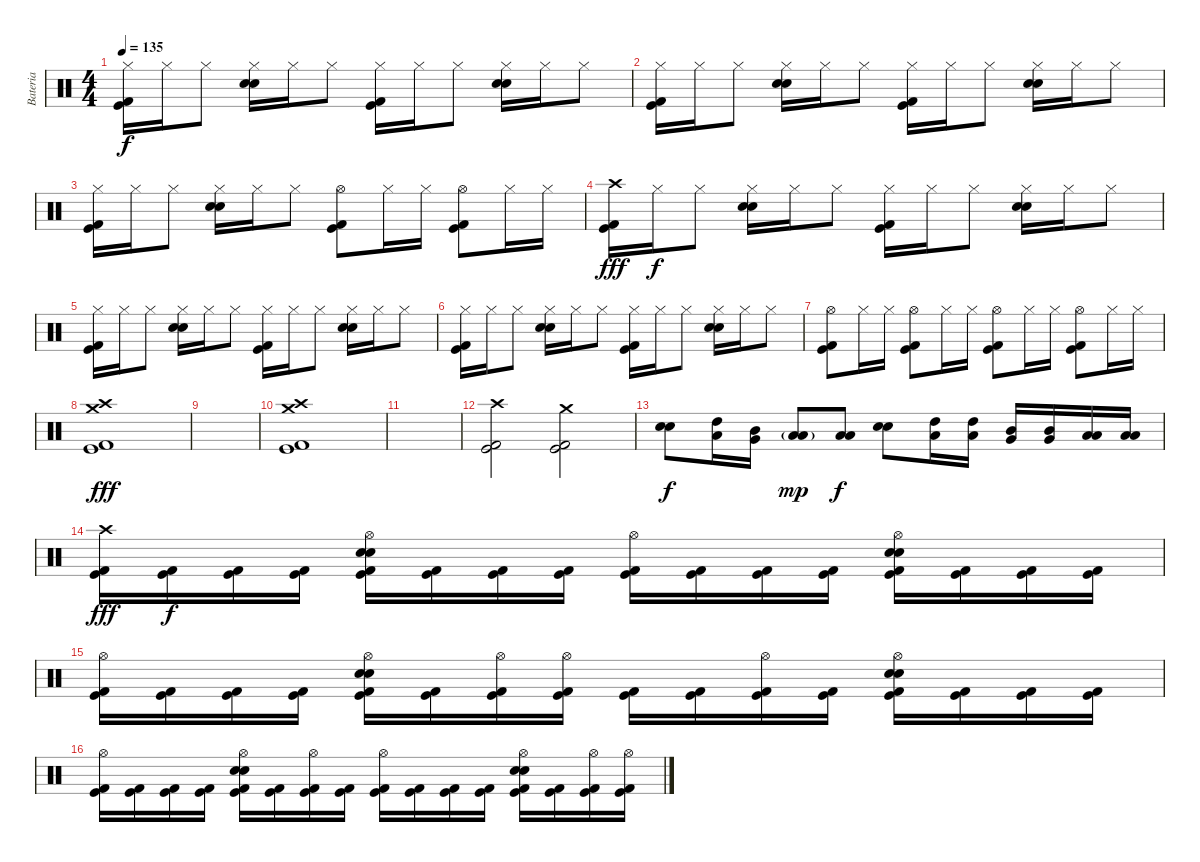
\track ("Bateria" "Bateria") {instrument percussion}
\staff {score}
\articulation defaults
\ts (4 4)
\tempo 135
\clef neutral
\ks c
("Hi-Hat (closed)" "Kick (hit) 2" "Kick (hit)").16{dy f} "Hi-Hat (closed)".16 "Hi-Hat (closed)".8 ("Hi-Hat (closed)" "Electric Snare (hit)" "Snare (hit) 2").16 "Hi-Hat (closed)".16 "Hi-Hat (closed)".8 ("Hi-Hat (closed)" "Kick (hit) 2" "Kick (hit)").16 "Hi-Hat (closed)".16 "Hi-Hat (closed)".8 ("Hi-Hat (closed)" "Electric Snare (hit)" "Snare (hit) 2").16 "Hi-Hat (closed)".16 "Hi-Hat (closed)".8 |
("Hi-Hat (closed)" "Kick (hit) 2" "Kick (hit)").16 "Hi-Hat (closed)".16 "Hi-Hat (closed)".8 ("Hi-Hat (closed)" "Electric Snare (hit)" "Snare (hit) 2").16 "Hi-Hat (closed)".16 "Hi-Hat (closed)".8 ("Hi-Hat (closed)" "Kick (hit) 2" "Kick (hit)").16 "Hi-Hat (closed)".16 "Hi-Hat (closed)".8 ("Hi-Hat (closed)" "Electric Snare (hit)" "Snare (hit) 2").16 "Hi-Hat (closed)".16 "Hi-Hat (closed)".8 |
("Hi-Hat (closed)" "Kick (hit) 2" "Kick (hit)").16 "Hi-Hat (closed)".16 "Hi-Hat (closed)".8 ("Hi-Hat (closed)" "Electric Snare (hit)" "Snare (hit) 2").16 "Hi-Hat (closed)".16 "Hi-Hat (closed)".8 ("Hi-Hat (open)" "Kick (hit) 2" "Kick (hit)").8 "Hi-Hat (closed)".16 "Hi-Hat (closed)".16 ("Hi-Hat (open)" "Kick (hit) 2" "Kick (hit)").8 "Hi-Hat (closed)".16 "Hi-Hat (closed)".16 |
("Crash high (hit)" "Kick (hit) 2" "Kick (hit)").16{dy fff} "Hi-Hat (closed)".16{dy f} "Hi-Hat (closed)".8 ("Hi-Hat (closed)" "Electric Snare (hit)" "Snare (hit) 2").16 "Hi-Hat (closed)".16 "Hi-Hat (closed)".8 ("Hi-Hat (closed)" "Kick (hit) 2" "Kick (hit)").16 "Hi-Hat (closed)".16 "Hi-Hat (closed)".8 ("Hi-Hat (closed)" "Electric Snare (hit)" "Snare (hit) 2").16 "Hi-Hat (closed)".16 "Hi-Hat (closed)".8 |
("Hi-Hat (closed)" "Kick (hit) 2" "Kick (hit)").16 "Hi-Hat (closed)".16 "Hi-Hat (closed)".8 ("Hi-Hat (closed)" "Electric Snare (hit)" "Snare (hit) 2").16 "Hi-Hat (closed)".16 "Hi-Hat (closed)".8 ("Hi-Hat (closed)" "Kick (hit) 2" "Kick (hit)").16 "Hi-Hat (closed)".16 "Hi-Hat (closed)".8 ("Hi-Hat (closed)" "Electric Snare (hit)" "Snare (hit) 2").16 "Hi-Hat (closed)".16 "Hi-Hat (closed)".8 |
("Hi-Hat (closed)" "Kick (hit) 2" "Kick (hit)").16 "Hi-Hat (closed)".16 "Hi-Hat (closed)".8 ("Hi-Hat (closed)" "Electric Snare (hit)" "Snare (hit) 2").16 "Hi-Hat (closed)".16 "Hi-Hat (closed)".8 ("Hi-Hat (closed)" "Kick (hit) 2" "Kick (hit)").16 "Hi-Hat (closed)".16 "Hi-Hat (closed)".8 ("Hi-Hat (closed)" "Electric Snare (hit)" "Snare (hit) 2").16 "Hi-Hat (closed)".16 "Hi-Hat (closed)".8 |
("Hi-Hat (open)" "Kick (hit) 2" "Kick (hit)").8 "Hi-Hat (closed)".16 "Hi-Hat (closed)".16 ("Hi-Hat (open)" "Kick (hit) 2" "Kick (hit)").8 "Hi-Hat (closed)".16 "Hi-Hat (closed)".16 ("Hi-Hat (open)" "Kick (hit) 2" "Kick (hit)").8 "Hi-Hat (closed)".16 "Hi-Hat (closed)".16 ("Hi-Hat (open)" "Kick (hit) 2" "Kick (hit)").8 "Hi-Hat (closed)".16 "Hi-Hat (closed)".16 |
("Crash high (hit)" "Crash medium (hit)" "Kick (hit) 2" "Kick (hit)").1{dy fff} |
|
("Crash high (hit)" "Crash medium (hit)" "Kick (hit) 2" "Kick (hit)").1 |
|
("Crash high (hit)" "Kick (hit) 2" "Kick (hit)").2 ("Crash medium (hit)" "Kick (hit) 2" "Kick (hit)").2 |
("Electric Snare (hit)" "Snare (hit) 2").8{dy f} ("High Tom (hit)" "Low Tom (hit)").16 ("Mid Tom (hit)" "Very Low Tom (hit)").16 ("Low Tom (hit)"{g} "Low Floor Tom (hit)"{g}).8{dy mp} ("Low Tom (hit)" "Low Floor Tom (hit)").8{dy f} ("Electric Snare (hit)" "Snare (hit) 2").8 ("High Tom (hit)" "Low Tom (hit)").16 ("High Tom (hit)" "Low Tom (hit)").16 ("Mid Tom (hit)" "Very Low Tom (hit)").16 ("Mid Tom (hit)" "Very Low Tom (hit)").16 ("Low Tom (hit)" "Low Floor Tom (hit)").16 ("Low Tom (hit)" "Low Floor Tom (hit)").16 |
("Crash high (hit)" "Kick (hit) 2" "Kick (hit)").16{dy fff} ("Kick (hit) 2" "Kick (hit)").16{dy f} ("Kick (hit) 2" "Kick (hit)").16 ("Kick (hit) 2" "Kick (hit)").16 ("Hi-Hat (open)" "Electric Snare (hit)" "Snare (hit) 2" "Kick (hit) 2" "Kick (hit)").16 ("Kick (hit) 2" "Kick (hit)").16 ("Kick (hit) 2" "Kick (hit)").16 ("Kick (hit) 2" "Kick (hit)").16 ("Hi-Hat (open)" "Kick (hit) 2" "Kick (hit)").16 ("Kick (hit) 2" "Kick (hit)").16 ("Kick (hit) 2" "Kick (hit)").16 ("Kick (hit) 2" "Kick (hit)").16 ("Hi-Hat (open)" "Electric Snare (hit)" "Snare (hit) 2" "Kick (hit) 2" "Kick (hit)").16 ("Kick (hit) 2" "Kick (hit)").16 ("Kick (hit) 2" "Kick (hit)").16 ("Kick (hit) 2" "Kick (hit)").16 |
("Hi-Hat (open)" "Kick (hit) 2" "Kick (hit)").16 ("Kick (hit) 2" "Kick (hit)").16 ("Kick (hit) 2" "Kick (hit)").16 ("Kick (hit) 2" "Kick (hit)").16 ("Hi-Hat (open)" "Electric Snare (hit)" "Snare (hit) 2" "Kick (hit) 2" "Kick (hit)").16 ("Kick (hit) 2" "Kick (hit)").16 ("Hi-Hat (open)" "Kick (hit) 2" "Kick (hit)").16 ("Hi-Hat (open)" "Kick (hit) 2" "Kick (hit)").16 ("Kick (hit) 2" "Kick (hit)").16 ("Kick (hit) 2" "Kick (hit)").16 ("Hi-Hat (open)" "Kick (hit) 2" "Kick (hit)").16 ("Kick (hit) 2" "Kick (hit)").16 ("Hi-Hat (open)" "Electric Snare (hit)" "Snare (hit) 2" "Kick (hit) 2" "Kick (hit)").16 ("Kick (hit) 2" "Kick (hit)").16 ("Kick (hit) 2" "Kick (hit)").16 ("Kick (hit) 2" "Kick (hit)").16 |
("Hi-Hat (open)" "Kick (hit) 2" "Kick (hit)").16 ("Kick (hit) 2" "Kick (hit)").16 ("Kick (hit) 2" "Kick (hit)").16 ("Kick (hit) 2" "Kick (hit)").16 ("Hi-Hat (open)" "Electric Snare (hit)" "Snare (hit) 2" "Kick (hit) 2" "Kick (hit)").16 ("Kick (hit) 2" "Kick (hit)").16 ("Hi-Hat (open)" "Kick (hit) 2" "Kick (hit)").16 ("Kick (hit) 2" "Kick (hit)").16 ("Hi-Hat (open)" "Kick (hit) 2" "Kick (hit)").16 ("Kick (hit) 2" "Kick (hit)").16 ("Kick (hit) 2" "Kick (hit)").16 ("Kick (hit) 2" "Kick (hit)").16 ("Hi-Hat (open)" "Electric Snare (hit)" "Snare (hit) 2" "Kick (hit) 2" "Kick (hit)").16 ("Kick (hit) 2" "Kick (hit)").16 ("Hi-Hat (open)" "Kick (hit) 2" "Kick (hit)").16 ("Hi-Hat (open)" "Kick (hit) 2" "Kick (hit)").16
